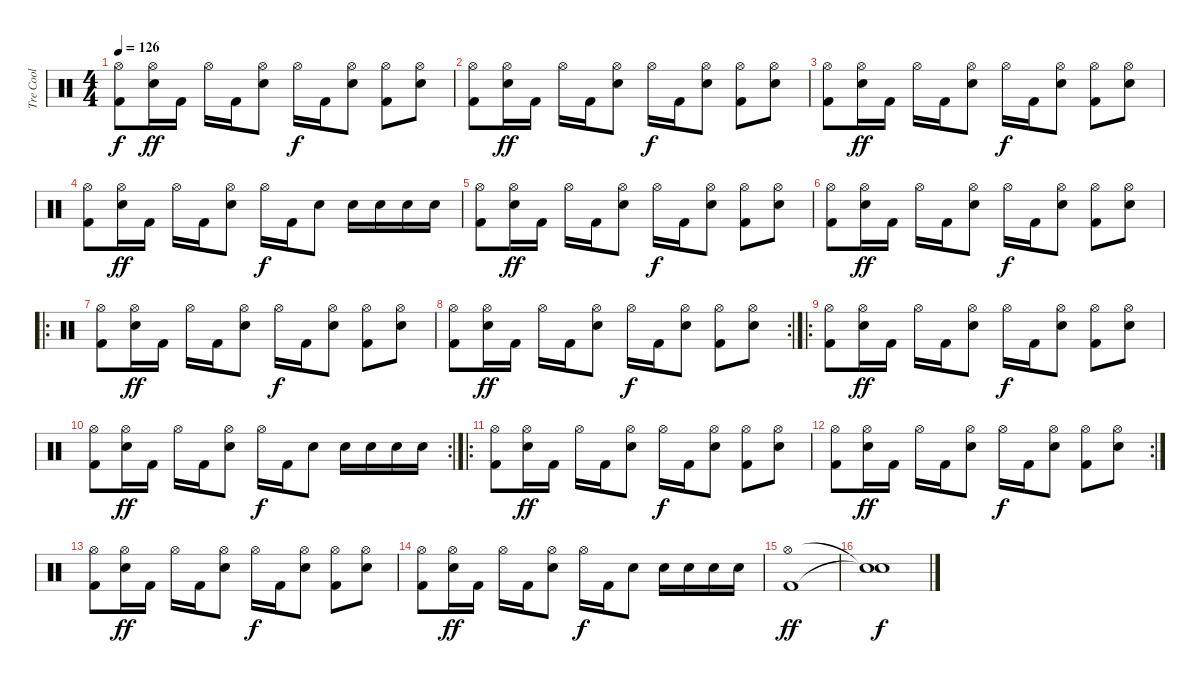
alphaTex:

\track ("Tre Cool" "Tre Cool") {instrument percussion}
\staff {score}
\articulation defaults
\ts (4 4)
\tempo 126
\clef neutral
\ks c
("Hi-Hat (open)" "Kick (hit) 2").8{dy f} ("Hi-Hat (open)" "Snare (hit) 2").16{dy ff} "Kick (hit) 2".16 "Hi-Hat (open)".16 "Kick (hit) 2".16 ("Hi-Hat (open)" "Snare (hit) 2").8 "Hi-Hat (open)".16{dy f} "Kick (hit) 2".16 ("Hi-Hat (open)" "Snare (hit) 2").8 ("Kick (hit) 2" "Hi-Hat (open)").8 ("Snare (hit) 2" "Hi-Hat (open)").8 |
("Hi-Hat (open)" "Kick (hit) 2").8 ("Hi-Hat (open)" "Snare (hit) 2").16{dy ff} "Kick (hit) 2".16 "Hi-Hat (open)".16 "Kick (hit) 2".16 ("Hi-Hat (open)" "Snare (hit) 2").8 "Hi-Hat (open)".16{dy f} "Kick (hit) 2".16 ("Hi-Hat (open)" "Snare (hit) 2").8 ("Kick (hit) 2" "Hi-Hat (open)").8 ("Hi-Hat (open)" "Snare (hit) 2").8 |
("Hi-Hat (open)" "Kick (hit) 2").8 ("Hi-Hat (open)" "Snare (hit) 2").16{dy ff} "Kick (hit) 2".16 "Hi-Hat (open)".16 "Kick (hit) 2".16 ("Hi-Hat (open)" "Snare (hit) 2").8 "Hi-Hat (open)".16{dy f} "Kick (hit) 2".16 ("Hi-Hat (open)" "Snare (hit) 2").8 ("Kick (hit) 2" "Hi-Hat (open)").8 ("Snare (hit) 2" "Hi-Hat (open)").8 |
("Hi-Hat (open)" "Kick (hit) 2").8 ("Hi-Hat (open)" "Snare (hit) 2").16{dy ff} "Kick (hit) 2".16 "Hi-Hat (open)".16 "Kick (hit) 2".16 ("Hi-Hat (open)" "Snare (hit) 2").8 "Hi-Hat (open)".16{dy f} "Kick (hit) 2".16 "Snare (hit) 2".8 "Snare (hit) 2".16 "Snare (hit) 2".16 "Snare (hit) 2".16 "Snare (hit) 2".16 |
("Hi-Hat (open)" "Kick (hit) 2").8 ("Hi-Hat (open)" "Snare (hit) 2").16{dy ff} "Kick (hit) 2".16 "Hi-Hat (open)".16 "Kick (hit) 2".16 ("Hi-Hat (open)" "Snare (hit) 2").8 "Hi-Hat (open)".16{dy f} "Kick (hit) 2".16 ("Hi-Hat (open)" "Snare (hit) 2").8 ("Kick (hit) 2" "Hi-Hat (open)").8 ("Hi-Hat (open)" "Snare (hit) 2").8 |
("Hi-Hat (open)" "Kick (hit) 2").8 ("Hi-Hat (open)" "Snare (hit) 2").16{dy ff} "Kick (hit) 2".16 "Hi-Hat (open)".16 "Kick (hit) 2".16 ("Hi-Hat (open)" "Snare (hit) 2").8 "Hi-Hat (open)".16{dy f} "Kick (hit) 2".16 ("Hi-Hat (open)" "Snare (hit) 2").8 ("Kick (hit) 2" "Hi-Hat (open)").8 ("Hi-Hat (open)" "Snare (hit) 2").8 |
\ro
("Hi-Hat (open)" "Kick (hit) 2").8 ("Hi-Hat (open)" "Snare (hit) 2").16{dy ff} "Kick (hit) 2".16 "Hi-Hat (open)".16 "Kick (hit) 2".16 ("Hi-Hat (open)" "Snare (hit) 2").8 "Hi-Hat (open)".16{dy f} "Kick (hit) 2".16 ("Hi-Hat (open)" "Snare (hit) 2").8 ("Kick (hit) 2" "Hi-Hat (open)").8 ("Snare (hit) 2" "Hi-Hat (open)").8 |
\rc 2
("Hi-Hat (open)" "Kick (hit) 2").8 ("Hi-Hat (open)" "Snare (hit) 2").16{dy ff} "Kick (hit) 2".16 "Hi-Hat (open)".16 "Kick (hit) 2".16 ("Hi-Hat (open)" "Snare (hit) 2").8 "Hi-Hat (open)".16{dy f} "Kick (hit) 2".16 ("Hi-Hat (open)" "Snare (hit) 2").8 ("Kick (hit) 2" "Hi-Hat (open)").8 ("Hi-Hat (open)" "Snare (hit) 2").8 |
\ro
("Hi-Hat (open)" "Kick (hit) 2").8 ("Hi-Hat (open)" "Snare (hit) 2").16{dy ff} "Kick (hit) 2".16 "Hi-Hat (open)".16 "Kick (hit) 2".16 ("Hi-Hat (open)" "Snare (hit) 2").8 "Hi-Hat (open)".16{dy f} "Kick (hit) 2".16 ("Hi-Hat (open)" "Snare (hit) 2").8 ("Kick (hit) 2" "Hi-Hat (open)").8 ("Snare (hit) 2" "Hi-Hat (open)").8 |
\rc 2
("Hi-Hat (open)" "Kick (hit) 2").8 ("Hi-Hat (open)" "Snare (hit) 2").16{dy ff} "Kick (hit) 2".16 "Hi-Hat (open)".16 "Kick (hit) 2".16 ("Hi-Hat (open)" "Snare (hit) 2").8 "Hi-Hat (open)".16{dy f} "Kick (hit) 2".16 "Snare (hit) 2".8 "Snare (hit) 2".16 "Snare (hit) 2".16 "Snare (hit) 2".16 "Snare (hit) 2".16 |
\ro
("Hi-Hat (open)" "Kick (hit) 2").8 ("Hi-Hat (open)" "Snare (hit) 2").16{dy ff} "Kick (hit) 2".16 "Hi-Hat (open)".16 "Kick (hit) 2".16 ("Hi-Hat (open)" "Snare (hit) 2").8 "Hi-Hat (open)".16{dy f} "Kick (hit) 2".16 ("Hi-Hat (open)" "Snare (hit) 2").8 ("Kick (hit) 2" "Hi-Hat (open)").8 ("Snare (hit) 2" "Hi-Hat (open)").8 |
\rc 2
("Hi-Hat (open)" "Kick (hit) 2").8 ("Hi-Hat (open)" "Snare (hit) 2").16{dy ff} "Kick (hit) 2".16 "Hi-Hat (open)".16 "Kick (hit) 2".16 ("Hi-Hat (open)" "Snare (hit) 2").8 "Hi-Hat (open)".16{dy f} "Kick (hit) 2".16 ("Hi-Hat (open)" "Snare (hit) 2").8 ("Kick (hit) 2" "Hi-Hat (open)").8 ("Hi-Hat (open)" "Snare (hit) 2").8 |
("Hi-Hat (open)" "Kick (hit) 2").8 ("Hi-Hat (open)" "Snare (hit) 2").16{dy ff} "Kick (hit) 2".16 "Hi-Hat (open)".16 "Kick (hit) 2".16 ("Hi-Hat (open)" "Snare (hit) 2").8 "Hi-Hat (open)".16{dy f} "Kick (hit) 2".16 ("Hi-Hat (open)" "Snare (hit) 2").8 ("Kick (hit) 2" "Hi-Hat (open)").8 ("Snare (hit) 2" "Hi-Hat (open)").8 |
("Hi-Hat (open)" "Kick (hit) 2").8 ("Hi-Hat (open)" "Snare (hit) 2").16{dy ff} "Kick (hit) 2".16 "Hi-Hat (open)".16 "Kick (hit) 2".16 ("Hi-Hat (open)" "Snare (hit) 2").8 "Hi-Hat (open)".16{dy f} "Kick (hit) 2".16 "Snare (hit) 2".8 "Snare (hit) 2".16 "Snare (hit) 2".16 "Snare (hit) 2".16 "Snare (hit) 2".16 |
("Hi-Hat (open)" "Kick (hit) 2").1{dy ff} |
("Snare (hit)"{t} "Snare (hit)"{t}).1{dy f}
